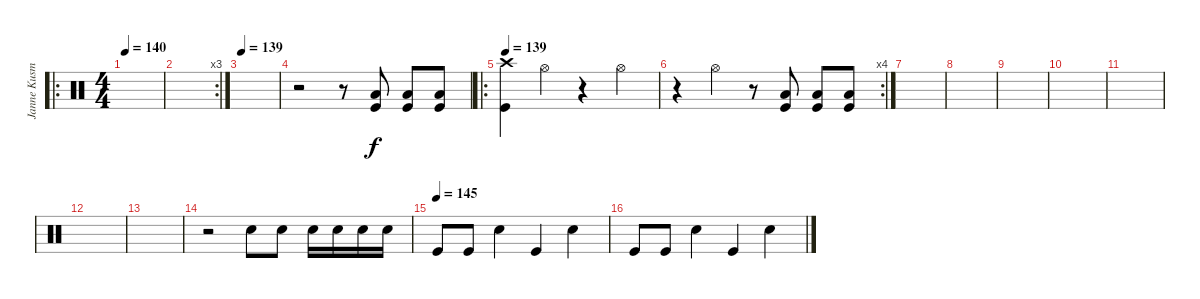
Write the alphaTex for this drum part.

\track ("Janne Kusmin " "Janne Kusm") {instrument percussion}
\staff {score}
\articulation defaults
\ro
\ts (4 4)
\tempo 140
\tempo 139
\tempo 140
\clef neutral
\ks c
|
\rc 3
|
\tempo 139
|
r.2 r.8 ("Low Tom (hit)" "Kick (hit)").8 ("Low Tom (hit)" "Kick (hit)").8 ("Low Tom (hit)" "Kick (hit)").8 |
\ro
\tempo 139
("Crash high (hit)" "Kick (hit)").4 "Hi-Hat (open)".4 r.4 "Hi-Hat (open)".4 |
\rc 4
r.4 "Hi-Hat (open)".4 r.8 ("Low Tom (hit)" "Kick (hit)").8 ("Low Tom (hit)" "Kick (hit)").8 ("Low Tom (hit)" "Kick (hit)").8 |
|
|
|
|
|
|
|
r.2 "Snare (hit) 2".8 "Snare (hit) 2".8 "Snare (hit) 2".16 "Snare (hit) 2".16 "Snare (hit) 2".16 "Snare (hit) 2".16 |
\tempo (145)
"Kick (hit)".8 "Kick (hit)".8 "Snare (hit) 2".4 "Kick (hit)".4 "Snare (hit) 2".4 |
"Kick (hit)".8 "Kick (hit)".8 "Snare (hit) 2".4 "Kick (hit)".4 "Snare (hit) 2".4
